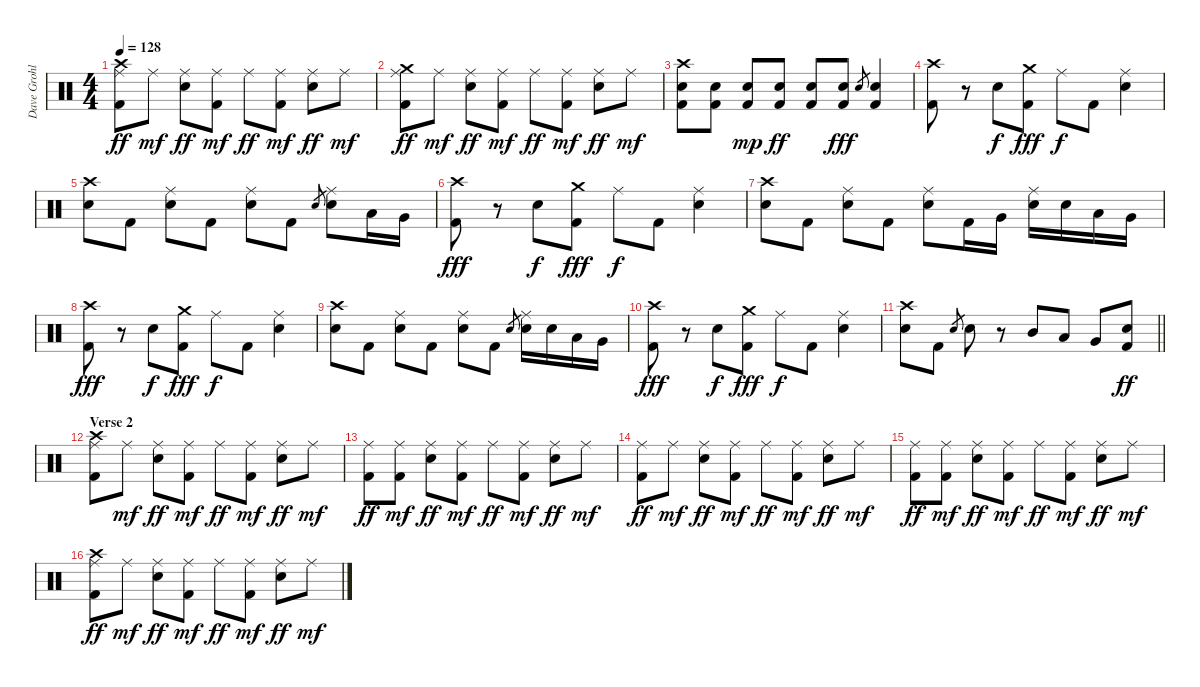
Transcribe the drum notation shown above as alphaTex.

\track ("Dave Grohl" "Dave Grohl") {instrument percussion}
\staff {score}
\articulation defaults
\ts (4 4)
\tempo 128
\clef neutral
\ks c
("Crash high (hit)" "Ride (middle)" "Kick (hit) 2").8{dy ff} "Ride (middle)".8{dy mf} ("Ride (middle)" "Snare (hit) 2").8{dy ff} ("Ride (middle)" "Kick (hit) 2").8{dy mf} "Ride (middle)".8{dy ff} ("Ride (middle)" "Kick (hit) 2").8{dy mf} ("Ride (middle)" "Snare (hit) 2").8{dy ff} "Ride (middle)".8{dy mf} |
("Crash medium (hit)" "Ride (middle)" "Kick (hit) 2").8{dy ff} "Ride (middle)".8{dy mf} ("Ride (middle)" "Snare (hit) 2").8{dy ff} ("Ride (middle)" "Kick (hit) 2").8{dy mf} "Ride (middle)".8{dy ff} ("Ride (middle)" "Kick (hit) 2").8{dy mf} ("Ride (middle)" "Snare (hit) 2").8{dy ff} "Ride (middle)".8{dy mf} |
("Crash high (hit)" "Snare (hit) 2" "Kick (hit) 2").8 ("Snare (hit) 2" "Kick (hit) 2").8 ("Snare (hit) 2" "Kick (hit) 2").8{dy mp} ("Snare (hit) 2" "Kick (hit) 2").8{dy ff} ("Snare (hit) 2" "Kick (hit) 2").8 ("Snare (hit) 2" "Kick (hit) 2").8{dy fff} "Snare (hit) 2".8{gr} ("Snare (hit) 2" "Kick (hit) 2").4 |
("Crash high (hit)" "Kick (hit) 2").8 r.8 "Snare (hit) 2".8{dy f} ("Crash medium (hit)" "Kick (hit) 2").8{dy fff} "Ride (middle)".8{dy f} "Kick (hit) 2".8 ("Ride (middle)" "Snare (hit) 2").4 |
("Crash high (hit)" "Snare (hit) 2").8 "Kick (hit) 2".8 ("Ride (middle)" "Snare (hit) 2").8 "Kick (hit) 2".8 ("Ride (middle)" "Snare (hit) 2").8 "Kick (hit) 2".8 "Snare (hit) 2".8{gr} ("Ride (middle)" "Snare (hit) 2").8 "Low Tom (hit)".16 "Very Low Tom (hit)".16 |
("Crash high (hit)" "Kick (hit) 2").8{dy fff} r.8 "Snare (hit) 2".8{dy f} ("Crash medium (hit)" "Kick (hit) 2").8{dy fff} "Ride (middle)".8{dy f} "Kick (hit) 2".8 ("Ride (middle)" "Snare (hit) 2").4 |
("Crash high (hit)" "Snare (hit) 2").8 "Kick (hit) 2".8 ("Ride (middle)" "Snare (hit) 2").8 "Kick (hit) 2".8 ("Ride (middle)" "Snare (hit) 2").8 "Kick (hit) 2".16 "Very Low Tom (hit)".16 ("Ride (middle)" "Snare (hit) 2").16 "Snare (hit) 2".16 "Low Tom (hit)".16 "Very Low Tom (hit)".16 |
("Crash high (hit)" "Kick (hit) 2").8{dy fff} r.8 "Snare (hit) 2".8{dy f} ("Crash medium (hit)" "Kick (hit) 2").8{dy fff} "Ride (middle)".8{dy f} "Kick (hit) 2".8 ("Ride (middle)" "Snare (hit) 2").4 |
("Crash high (hit)" "Snare (hit) 2").8 "Kick (hit) 2".8 ("Ride (middle)" "Snare (hit) 2").8 "Kick (hit) 2".8 ("Ride (middle)" "Snare (hit) 2").8 "Kick (hit) 2".8 "Snare (hit) 2".8{gr} ("Ride (middle)" "Snare (hit) 2").16 "Snare (hit) 2".16 "Low Tom (hit)".16 "Very Low Tom (hit)".16 |
("Crash high (hit)" "Kick (hit) 2").8{dy fff} r.8 "Snare (hit) 2".8{dy f} ("Crash medium (hit)" "Kick (hit) 2").8{dy fff} "Ride (middle)".8{dy f} "Kick (hit) 2".8 ("Ride (middle)" "Snare (hit) 2").4 |
\barLineRight lightlight
("Crash high (hit)" "Snare (hit) 2").8 "Kick (hit) 2".8 "Snare (hit) 2".8{gr} "Snare (hit) 2".8 r.8 "Mid Tom (hit)".8 "Low Tom (hit)".8 "Very Low Tom (hit)".8 ("Snare (hit) 2" "Kick (hit) 2").8{dy ff} |
\section ("" "Verse 2")
("Crash high (hit)" "Ride (middle)" "Kick (hit) 2").8 "Ride (middle)".8{dy mf} ("Ride (middle)" "Snare (hit) 2").8{dy ff} ("Ride (middle)" "Kick (hit) 2").8{dy mf} "Ride (middle)".8{dy ff} ("Ride (middle)" "Kick (hit) 2").8{dy mf} ("Ride (middle)" "Snare (hit) 2").8{dy ff} "Ride (middle)".8{dy mf} |
("Ride (middle)" "Kick (hit) 2").8{dy ff} ("Ride (middle)" "Kick (hit) 2").8{dy mf} ("Ride (middle)" "Snare (hit) 2").8{dy ff} ("Ride (middle)" "Kick (hit) 2").8{dy mf} "Ride (middle)".8{dy ff} ("Ride (middle)" "Kick (hit) 2").8{dy mf} ("Ride (middle)" "Snare (hit) 2").8{dy ff} "Ride (middle)".8{dy mf} |
("Ride (middle)" "Kick (hit) 2").8{dy ff} "Ride (middle)".8{dy mf} ("Ride (middle)" "Snare (hit) 2").8{dy ff} ("Ride (middle)" "Kick (hit) 2").8{dy mf} "Ride (middle)".8{dy ff} ("Ride (middle)" "Kick (hit) 2").8{dy mf} ("Ride (middle)" "Snare (hit) 2").8{dy ff} "Ride (middle)".8{dy mf} |
("Ride (middle)" "Kick (hit) 2").8{dy ff} ("Ride (middle)" "Kick (hit) 2").8{dy mf} ("Ride (middle)" "Snare (hit) 2").8{dy ff} ("Ride (middle)" "Kick (hit) 2").8{dy mf} "Ride (middle)".8{dy ff} ("Ride (middle)" "Kick (hit) 2").8{dy mf} ("Ride (middle)" "Snare (hit) 2").8{dy ff} "Ride (middle)".8{dy mf} |
("Crash high (hit)" "Ride (middle)" "Kick (hit) 2").8{dy ff} "Ride (middle)".8{dy mf} ("Ride (middle)" "Snare (hit) 2").8{dy ff} ("Ride (middle)" "Kick (hit) 2").8{dy mf} "Ride (middle)".8{dy ff} ("Ride (middle)" "Kick (hit) 2").8{dy mf} ("Ride (middle)" "Snare (hit) 2").8{dy ff} "Ride (middle)".8{dy mf}
